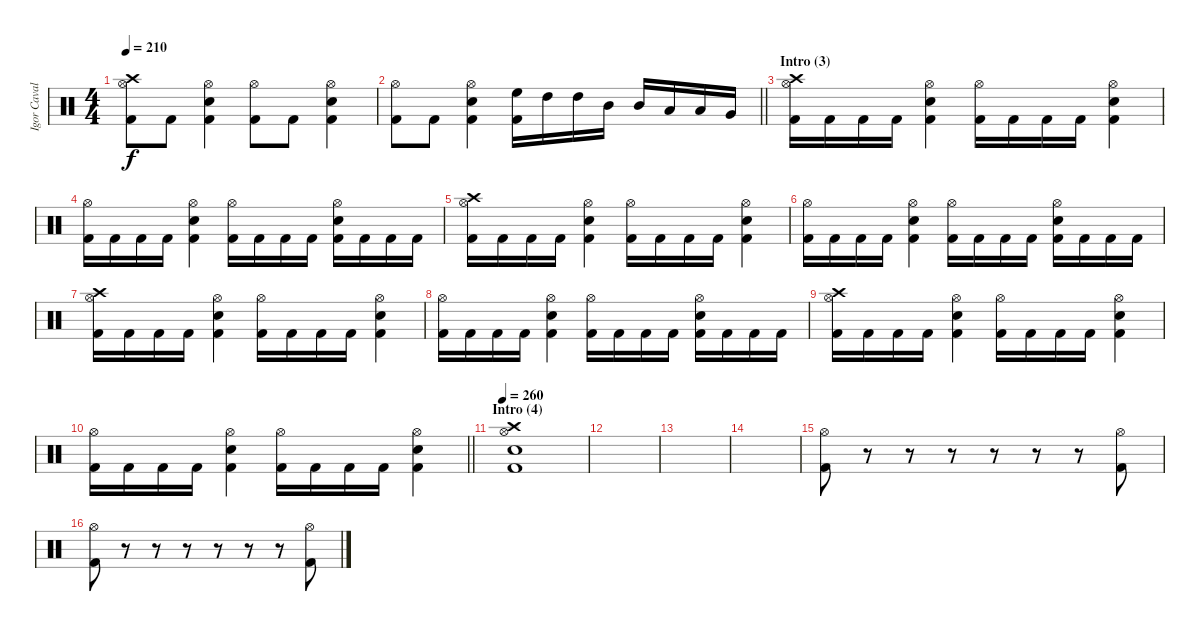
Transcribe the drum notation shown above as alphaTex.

\track ("Igor Cavalera" "Igor Caval") {instrument percussion}
\staff {score}
\articulation defaults
\ts (4 4)
\tempo 210
\clef neutral
\ks c
("Crash high (hit)" "Hi-Hat (open)" "Kick (hit) 2").8{dy f} "Kick (hit) 2".8 ("Hi-Hat (open)" "Electric Snare (hit)" "Kick (hit) 2").4 ("Hi-Hat (open)" "Kick (hit) 2").8 "Kick (hit) 2".8 ("Hi-Hat (open)" "Electric Snare (hit)" "Kick (hit) 2").4 |
\barLineRight lightlight
("Hi-Hat (open)" "Kick (hit) 2").8 "Kick (hit) 2".8 ("Hi-Hat (open)" "Electric Snare (hit)" "Kick (hit) 2").4 ("High Floor Tom (hit)" "Kick (hit) 2").16 "High Tom (hit)".16 "High Tom (hit)".16 "Mid Tom (hit)".16 "Mid Tom (hit)".16 "Low Tom (hit)".16 "Low Tom (hit)".16 "Very Low Tom (hit)".16 |
\section ("" "Intro (3)")
("Crash high (hit)" "Hi-Hat (open)" "Kick (hit) 2").16 "Kick (hit) 2".16 "Kick (hit) 2".16 "Kick (hit) 2".16 ("Hi-Hat (open)" "Electric Snare (hit)" "Kick (hit) 2").4 ("Hi-Hat (open)" "Kick (hit) 2").16 "Kick (hit) 2".16 "Kick (hit) 2".16 "Kick (hit) 2".16 ("Hi-Hat (open)" "Electric Snare (hit)" "Kick (hit) 2").4 |
("Hi-Hat (open)" "Kick (hit) 2").16 "Kick (hit) 2".16 "Kick (hit) 2".16 "Kick (hit) 2".16 ("Hi-Hat (open)" "Electric Snare (hit)" "Kick (hit) 2").4 ("Hi-Hat (open)" "Kick (hit) 2").16 "Kick (hit) 2".16 "Kick (hit) 2".16 "Kick (hit) 2".16 ("Hi-Hat (open)" "Electric Snare (hit)" "Kick (hit) 2").16 "Kick (hit) 2".16 "Kick (hit) 2".16 "Kick (hit) 2".16 |
("Crash high (hit)" "Hi-Hat (open)" "Kick (hit) 2").16 "Kick (hit) 2".16 "Kick (hit) 2".16 "Kick (hit) 2".16 ("Hi-Hat (open)" "Electric Snare (hit)" "Kick (hit) 2").4 ("Hi-Hat (open)" "Kick (hit) 2").16 "Kick (hit) 2".16 "Kick (hit) 2".16 "Kick (hit) 2".16 ("Hi-Hat (open)" "Electric Snare (hit)" "Kick (hit) 2").4 |
("Hi-Hat (open)" "Kick (hit) 2").16 "Kick (hit) 2".16 "Kick (hit) 2".16 "Kick (hit) 2".16 ("Hi-Hat (open)" "Electric Snare (hit)" "Kick (hit) 2").4 ("Hi-Hat (open)" "Kick (hit) 2").16 "Kick (hit) 2".16 "Kick (hit) 2".16 "Kick (hit) 2".16 ("Hi-Hat (open)" "Electric Snare (hit)" "Kick (hit) 2").16 "Kick (hit) 2".16 "Kick (hit) 2".16 "Kick (hit) 2".16 |
("Crash high (hit)" "Hi-Hat (open)" "Kick (hit) 2").16 "Kick (hit) 2".16 "Kick (hit) 2".16 "Kick (hit) 2".16 ("Hi-Hat (open)" "Electric Snare (hit)" "Kick (hit) 2").4 ("Hi-Hat (open)" "Kick (hit) 2").16 "Kick (hit) 2".16 "Kick (hit) 2".16 "Kick (hit) 2".16 ("Hi-Hat (open)" "Electric Snare (hit)" "Kick (hit) 2").4 |
("Hi-Hat (open)" "Kick (hit) 2").16 "Kick (hit) 2".16 "Kick (hit) 2".16 "Kick (hit) 2".16 ("Hi-Hat (open)" "Electric Snare (hit)" "Kick (hit) 2").4 ("Hi-Hat (open)" "Kick (hit) 2").16 "Kick (hit) 2".16 "Kick (hit) 2".16 "Kick (hit) 2".16 ("Hi-Hat (open)" "Electric Snare (hit)" "Kick (hit) 2").16 "Kick (hit) 2".16 "Kick (hit) 2".16 "Kick (hit) 2".16 |
("Crash high (hit)" "Hi-Hat (open)" "Kick (hit) 2").16 "Kick (hit) 2".16 "Kick (hit) 2".16 "Kick (hit) 2".16 ("Hi-Hat (open)" "Electric Snare (hit)" "Kick (hit) 2").4 ("Hi-Hat (open)" "Kick (hit) 2").16 "Kick (hit) 2".16 "Kick (hit) 2".16 "Kick (hit) 2".16 ("Hi-Hat (open)" "Electric Snare (hit)" "Kick (hit) 2").4 |
\barLineRight lightlight
("Hi-Hat (open)" "Kick (hit) 2").16 "Kick (hit) 2".16 "Kick (hit) 2".16 "Kick (hit) 2".16 ("Hi-Hat (open)" "Electric Snare (hit)" "Kick (hit) 2").4 ("Hi-Hat (open)" "Kick (hit) 2").16 "Kick (hit) 2".16 "Kick (hit) 2".16 "Kick (hit) 2".16 ("Hi-Hat (open)" "Electric Snare (hit)" "Kick (hit) 2").4 |
\section ("" "Intro (4)")
\tempo 260
("Crash high (hit)" "Hi-Hat (open)" "Electric Snare (hit)" "Kick (hit) 2").1 |
|
|
|
("Hi-Hat (open)" "Kick (hit) 2").8 r.8 r.8 r.8 r.8 r.8 r.8 ("Hi-Hat (open)" "Kick (hit) 2").8 |
("Hi-Hat (open)" "Kick (hit) 2").8 r.8 r.8 r.8 r.8 r.8 r.8 ("Hi-Hat (open)" "Kick (hit) 2").8
